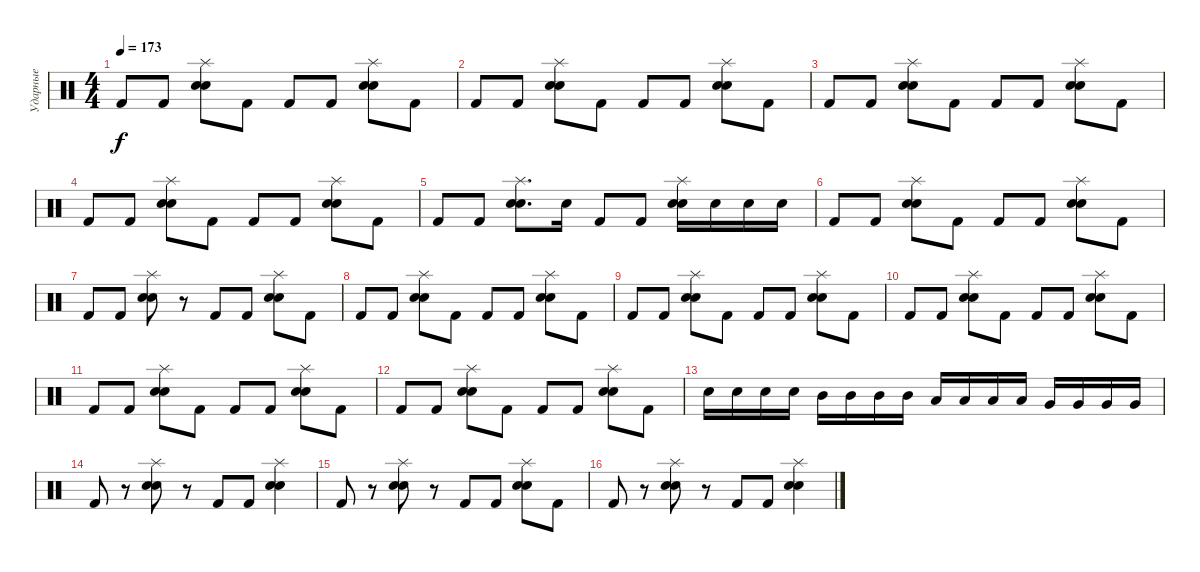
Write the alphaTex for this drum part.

\track ("Ударные" "Ударные") {instrument percussion}
\staff {score}
\articulation defaults
\ts (4 4)
\tempo 173
\clef neutral
\ks c "Kick (hit) 2".8{dy f} "Kick (hit) 2".8
("Splash (hit)" "Electric Snare (hit)" "Snare (hit) 2").8 "Kick (hit) 2".8 "Kick (hit) 2".8 "Kick (hit) 2".8 ("Splash (hit)" "Electric Snare (hit)" "Snare (hit) 2").8 "Kick (hit) 2".8 |
"Kick (hit) 2".8 "Kick (hit) 2".8 ("Splash (hit)" "Electric Snare (hit)" "Snare (hit) 2").8 "Kick (hit) 2".8 "Kick (hit) 2".8 "Kick (hit) 2".8 ("Splash (hit)" "Electric Snare (hit)" "Snare (hit) 2").8 "Kick (hit) 2".8 |
"Kick (hit) 2".8 "Kick (hit) 2".8 ("Splash (hit)" "Electric Snare (hit)" "Snare (hit) 2").8 "Kick (hit) 2".8 "Kick (hit) 2".8 "Kick (hit) 2".8 ("Splash (hit)" "Electric Snare (hit)" "Snare (hit) 2").8 "Kick (hit) 2".8 |
"Kick (hit) 2".8 "Kick (hit) 2".8 ("Splash (hit)" "Electric Snare (hit)" "Snare (hit) 2").8 "Kick (hit) 2".8 "Kick (hit) 2".8 "Kick (hit) 2".8 ("Splash (hit)" "Electric Snare (hit)" "Snare (hit) 2").8 "Kick (hit) 2".8 |
"Kick (hit) 2".8 "Kick (hit) 2".8 ("Splash (hit)" "Electric Snare (hit)" "Snare (hit) 2").8{d} "Electric Snare (hit)".16 "Kick (hit) 2".8 "Kick (hit) 2".8 ("Splash (hit)" "Electric Snare (hit)" "Snare (hit) 2").16 "Electric Snare (hit)".16 "Electric Snare (hit)".16 "Electric Snare (hit)".16 |
"Kick (hit) 2".8 "Kick (hit) 2".8 ("Splash (hit)" "Electric Snare (hit)" "Snare (hit) 2").8 "Kick (hit) 2".8 "Kick (hit) 2".8 "Kick (hit) 2".8 ("Splash (hit)" "Electric Snare (hit)" "Snare (hit) 2").8 "Kick (hit) 2".8 |
"Kick (hit) 2".8 "Kick (hit) 2".8 ("Splash (hit)" "Electric Snare (hit)" "Snare (hit) 2").8 r.8 "Kick (hit) 2".8 "Kick (hit) 2".8 ("Splash (hit)" "Electric Snare (hit)" "Snare (hit) 2").8 "Kick (hit) 2".8 |
"Kick (hit) 2".8 "Kick (hit) 2".8 ("Splash (hit)" "Electric Snare (hit)" "Snare (hit) 2").8 "Kick (hit) 2".8 "Kick (hit) 2".8 "Kick (hit) 2".8 ("Splash (hit)" "Electric Snare (hit)" "Snare (hit) 2").8 "Kick (hit) 2".8 |
"Kick (hit) 2".8 "Kick (hit) 2".8 ("Splash (hit)" "Electric Snare (hit)" "Snare (hit) 2").8 "Kick (hit) 2".8 "Kick (hit) 2".8 "Kick (hit) 2".8 ("Splash (hit)" "Electric Snare (hit)" "Snare (hit) 2").8 "Kick (hit) 2".8 |
"Kick (hit) 2".8 "Kick (hit) 2".8 ("Splash (hit)" "Electric Snare (hit)" "Snare (hit) 2").8 "Kick (hit) 2".8 "Kick (hit) 2".8 "Kick (hit) 2".8 ("Splash (hit)" "Electric Snare (hit)" "Snare (hit) 2").8 "Kick (hit) 2".8 |
"Kick (hit) 2".8 "Kick (hit) 2".8 ("Splash (hit)" "Electric Snare (hit)" "Snare (hit) 2").8 "Kick (hit) 2".8 "Kick (hit) 2".8 "Kick (hit) 2".8 ("Splash (hit)" "Electric Snare (hit)" "Snare (hit) 2").8 "Kick (hit) 2".8 |
"Kick (hit) 2".8 "Kick (hit) 2".8 ("Splash (hit)" "Electric Snare (hit)" "Snare (hit) 2").8 "Kick (hit) 2".8 "Kick (hit) 2".8 "Kick (hit) 2".8 ("Splash (hit)" "Electric Snare (hit)" "Snare (hit) 2").8 "Kick (hit) 2".8 |
"Electric Snare (hit)".16 "Electric Snare (hit)".16 "Electric Snare (hit)".16 "Electric Snare (hit)".16 "Mid Tom (hit)".16 "Mid Tom (hit)".16 "Mid Tom (hit)".16 "Mid Tom (hit)".16 "Low Tom (hit)".16 "Low Tom (hit)".16 "Low Tom (hit)".16 "Low Tom (hit)".16 "Very Low Tom (hit)".16 "Very Low Tom (hit)".16 "Very Low Tom (hit)".16 "Very Low Tom (hit)".16 |
"Kick (hit) 2".8 r.8 ("Splash (hit)" "Electric Snare (hit)" "Snare (hit) 2").8 r.8 "Kick (hit) 2".8 "Kick (hit) 2".8 ("Splash (hit)" "Electric Snare (hit)" "Snare (hit) 2").4 |
"Kick (hit) 2".8 r.8 ("Splash (hit)" "Electric Snare (hit)" "Snare (hit) 2").8 r.8 "Kick (hit) 2".8 "Kick (hit) 2".8 ("Splash (hit)" "Electric Snare (hit)" "Snare (hit) 2").8 "Kick (hit) 2".8 |
"Kick (hit) 2".8 r.8 ("Splash (hit)" "Electric Snare (hit)" "Snare (hit) 2").8 r.8 "Kick (hit) 2".8 "Kick (hit) 2".8 ("Splash (hit)" "Electric Snare (hit)" "Snare (hit) 2").4
